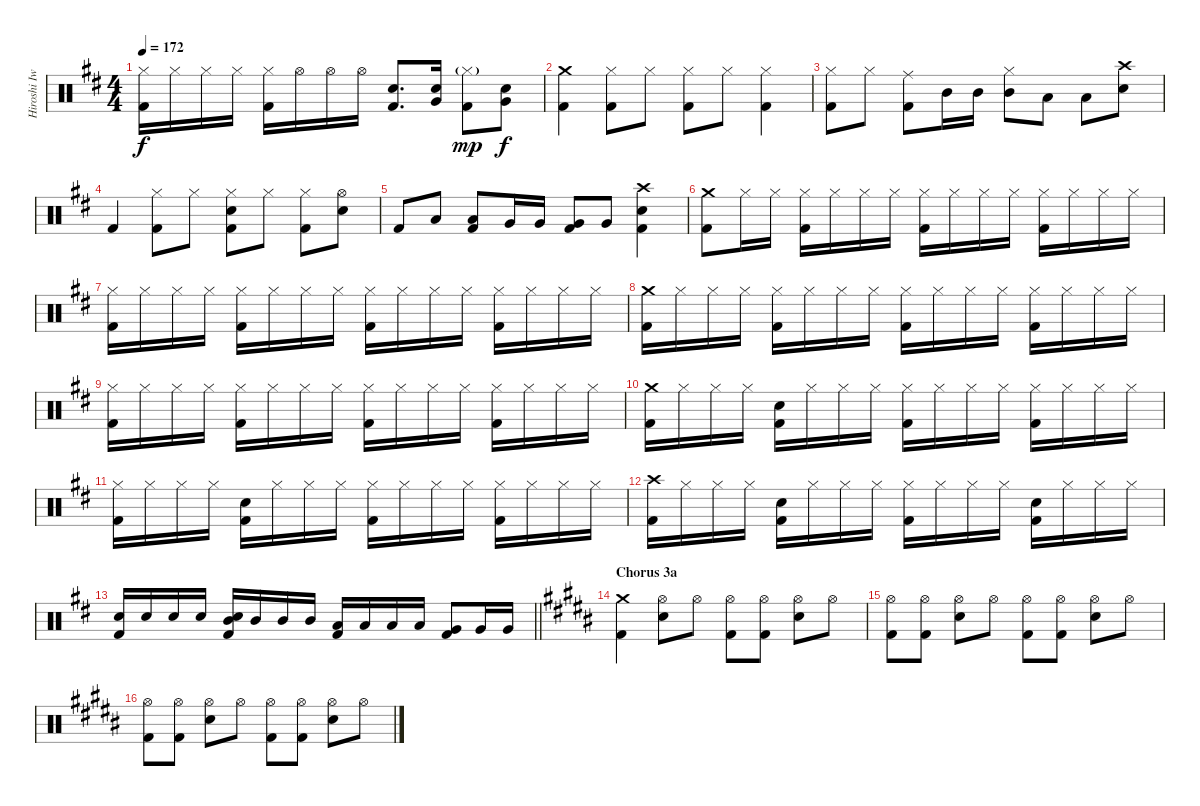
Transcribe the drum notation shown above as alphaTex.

\track ("Hiroshi Iwasaki - Drums" "Hiroshi Iw") {instrument percussion}
\staff {score}
\articulation defaults
\ts (4 4)
\tempo 172
\clef neutral
\ks d
("Hi-Hat (closed)" "Kick (hit) 2").16{dy f} "Hi-Hat (closed)".16 "Hi-Hat (closed)".16 "Hi-Hat (closed)".16 ("Hi-Hat (closed)" "Kick (hit) 2").16 "Hi-Hat (open)".16 "Hi-Hat (open)".16 "Hi-Hat (open)".16 ("Snare (hit) 2" "Kick (hit) 2").8{d} ("Snare (hit) 2" "Very Low Tom (hit)").16 ("Hi-Hat (closed)"{g} "Kick (hit) 2").8{dy mp} ("Snare (hit) 2" "Very Low Tom (hit)").8{dy f} |
("Crash medium (hit)" "Kick (hit) 2").4 ("Hi-Hat (closed)" "Kick (hit) 2").8 "Hi-Hat (closed)".8 ("Hi-Hat (closed)" "Kick (hit) 2").8 "Hi-Hat (closed)".8 ("Hi-Hat (closed)" "Kick (hit) 2").4 |
("Hi-Hat (closed)" "Kick (hit) 2").8 "Hi-Hat (closed)".8 ("Ride (middle)" "Kick (hit) 2").8 "Mid Tom (hit)".16 "Mid Tom (hit)".16 ("Hi-Hat (closed)" "Mid Tom (hit)").8 "Low Tom (hit)".8 "Low Tom (hit)".8 ("Snare (hit) 2" "Crash high (hit)").8 |
"Kick (hit) 2".4 ("Hi-Hat (closed)" "Kick (hit) 2").8 "Hi-Hat (closed)".8 ("Snare (hit) 2" "Hi-Hat (closed)" "Kick (hit) 2").8 "Hi-Hat (closed)".8 ("Hi-Hat (closed)" "Kick (hit) 2").8 ("Snare (hit) 2" "Hi-Hat (open)").8 |
"Kick (hit) 2".8 "Low Tom (hit)".8 ("Low Tom (hit)" "Kick (hit) 2").8 "Very Low Tom (hit)".16 "Very Low Tom (hit)".16 ("Very Low Tom (hit)" "Kick (hit) 2").8 "Very Low Tom (hit)".8 ("Snare (hit) 2" "Crash high (hit)" "Kick (hit) 2").4 |
("Crash medium (hit)" "Kick (hit) 2").8 "Hi-Hat (closed)".16 "Hi-Hat (closed)".16 ("Hi-Hat (closed)" "Kick (hit) 2").16 "Hi-Hat (closed)".16 "Hi-Hat (closed)".16 "Hi-Hat (closed)".16 ("Hi-Hat (closed)" "Kick (hit) 2").16 "Hi-Hat (closed)".16 "Hi-Hat (closed)".16 "Hi-Hat (closed)".16 ("Hi-Hat (closed)" "Kick (hit) 2").16 "Hi-Hat (closed)".16 "Hi-Hat (closed)".16 "Hi-Hat (closed)".16 |
("Hi-Hat (closed)" "Kick (hit) 2").16 "Hi-Hat (closed)".16 "Hi-Hat (closed)".16 "Hi-Hat (closed)".16 ("Hi-Hat (closed)" "Kick (hit) 2").16 "Hi-Hat (closed)".16 "Hi-Hat (closed)".16 "Hi-Hat (closed)".16 ("Hi-Hat (closed)" "Kick (hit) 2").16 "Hi-Hat (closed)".16 "Hi-Hat (closed)".16 "Hi-Hat (closed)".16 ("Hi-Hat (closed)" "Kick (hit) 2").16 "Hi-Hat (closed)".16 "Hi-Hat (closed)".16 "Hi-Hat (closed)".16 |
("Crash medium (hit)" "Kick (hit) 2").16 "Hi-Hat (closed)".16 "Hi-Hat (closed)".16 "Hi-Hat (closed)".16 ("Hi-Hat (closed)" "Kick (hit) 2").16 "Hi-Hat (closed)".16 "Hi-Hat (closed)".16 "Hi-Hat (closed)".16 ("Hi-Hat (closed)" "Kick (hit) 2").16 "Hi-Hat (closed)".16 "Hi-Hat (closed)".16 "Hi-Hat (closed)".16 ("Hi-Hat (closed)" "Kick (hit) 2").16 "Hi-Hat (closed)".16 "Hi-Hat (closed)".16 "Hi-Hat (closed)".16 |
("Hi-Hat (closed)" "Kick (hit) 2").16 "Hi-Hat (closed)".16 "Hi-Hat (closed)".16 "Hi-Hat (closed)".16 ("Hi-Hat (closed)" "Kick (hit) 2").16 "Hi-Hat (closed)".16 "Hi-Hat (closed)".16 "Hi-Hat (closed)".16 ("Hi-Hat (closed)" "Kick (hit) 2").16 "Hi-Hat (closed)".16 "Hi-Hat (closed)".16 "Hi-Hat (closed)".16 ("Hi-Hat (closed)" "Kick (hit) 2").16 "Hi-Hat (closed)".16 "Hi-Hat (closed)".16 "Hi-Hat (closed)".16 |
("Crash medium (hit)" "Kick (hit) 2").16 "Hi-Hat (closed)".16 "Hi-Hat (closed)".16 "Hi-Hat (closed)".16 ("Snare (hit) 2" "Kick (hit) 2").16 "Hi-Hat (closed)".16 "Hi-Hat (closed)".16 "Hi-Hat (closed)".16 ("Hi-Hat (closed)" "Kick (hit) 2").16 "Hi-Hat (closed)".16 "Hi-Hat (closed)".16 "Hi-Hat (closed)".16 ("Hi-Hat (closed)" "Kick (hit) 2").16 "Hi-Hat (closed)".16 "Hi-Hat (closed)".16 "Hi-Hat (closed)".16 |
("Hi-Hat (closed)" "Kick (hit) 2").16 "Hi-Hat (closed)".16 "Hi-Hat (closed)".16 "Hi-Hat (closed)".16 ("Snare (hit) 2" "Kick (hit) 2").16 "Hi-Hat (closed)".16 "Hi-Hat (closed)".16 "Hi-Hat (closed)".16 ("Hi-Hat (closed)" "Kick (hit) 2").16 "Hi-Hat (closed)".16 "Hi-Hat (closed)".16 "Hi-Hat (closed)".16 ("Hi-Hat (closed)" "Kick (hit) 2").16 "Hi-Hat (closed)".16 "Hi-Hat (closed)".16 "Hi-Hat (closed)".16 |
("Crash high (hit)" "Kick (hit) 2").16 "Hi-Hat (closed)".16 "Hi-Hat (closed)".16 "Hi-Hat (closed)".16 ("Snare (hit) 2" "Kick (hit) 2").16 "Hi-Hat (closed)".16 "Hi-Hat (closed)".16 "Hi-Hat (closed)".16 ("Hi-Hat (closed)" "Kick (hit) 2").16 "Hi-Hat (closed)".16 "Hi-Hat (closed)".16 "Hi-Hat (closed)".16 ("Snare (hit) 2" "Kick (hit) 2").16 "Hi-Hat (closed)".16 "Hi-Hat (closed)".16 "Hi-Hat (closed)".16 |
\barLineRight lightlight
("Snare (hit) 2" "Kick (hit) 2").16 "Snare (hit) 2".16 "Snare (hit) 2".16 "Snare (hit) 2".16 ("Snare (hit) 2" "Mid Tom (hit)" "Kick (hit) 2").16 "Mid Tom (hit)".16 "Mid Tom (hit)".16 "Mid Tom (hit)".16 ("Low Tom (hit)" "Kick (hit) 2").16 "Low Tom (hit)".16 "Low Tom (hit)".16 "Low Tom (hit)".16 ("Very Low Tom (hit)" "Kick (hit) 2").8 "Very Low Tom (hit)".16 "Very Low Tom (hit)".16 |
\section ("" "Chorus 3a")
\ks b
("Crash medium (hit)" "Kick (hit) 2").4 ("Snare (hit) 2" "Hi-Hat (open)").8 "Hi-Hat (open)".8 ("Hi-Hat (open)" "Kick (hit) 2").8 ("Hi-Hat (open)" "Kick (hit) 2").8 ("Snare (hit) 2" "Hi-Hat (open)").8 "Hi-Hat (open)".8 |
("Hi-Hat (open)" "Kick (hit) 2").8 ("Hi-Hat (open)" "Kick (hit) 2").8 ("Snare (hit) 2" "Hi-Hat (open)").8 "Hi-Hat (open)".8 ("Hi-Hat (open)" "Kick (hit) 2").8 ("Hi-Hat (open)" "Kick (hit) 2").8 ("Snare (hit) 2" "Hi-Hat (open)").8 "Hi-Hat (open)".8 |
("Hi-Hat (open)" "Kick (hit) 2").8 ("Hi-Hat (open)" "Kick (hit) 2").8 ("Snare (hit) 2" "Hi-Hat (open)").8 "Hi-Hat (open)".8 ("Hi-Hat (open)" "Kick (hit) 2").8 ("Hi-Hat (open)" "Kick (hit) 2").8 ("Snare (hit) 2" "Hi-Hat (open)").8 "Hi-Hat (open)".8
